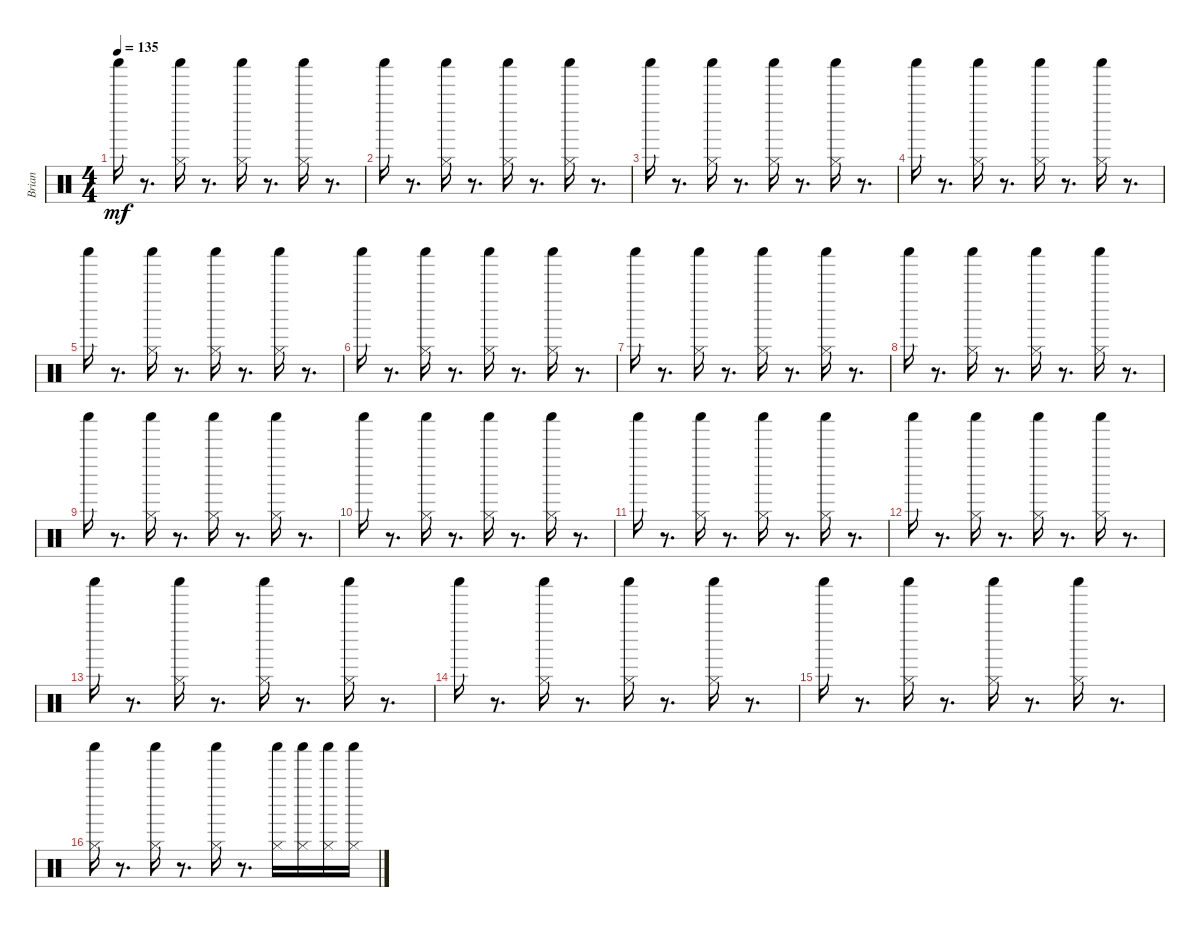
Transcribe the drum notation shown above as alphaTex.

\track ("Brian" "Brian") {instrument percussion}
\staff {score}
\articulation defaults
\ts (4 4)
\tempo 135
\clef neutral
\ks c "Shaker (hit)".16{dy mf}
r.8{d} ("Shaker (hit)" "Hi-Hat (closed)").16 r.8{d} ("Shaker (hit)" "Hi-Hat (closed)").16 r.8{d} ("Shaker (hit)" "Hi-Hat (closed)").16 r.8{d} |
"Shaker (hit)".16 r.8{d} ("Shaker (hit)" "Hi-Hat (closed)").16 r.8{d} ("Shaker (hit)" "Hi-Hat (closed)").16 r.8{d} ("Shaker (hit)" "Hi-Hat (closed)").16 r.8{d} |
"Shaker (hit)".16 r.8{d} ("Shaker (hit)" "Hi-Hat (closed)").16 r.8{d} ("Shaker (hit)" "Hi-Hat (closed)").16 r.8{d} ("Shaker (hit)" "Hi-Hat (closed)").16 r.8{d} |
"Shaker (hit)".16 r.8{d} ("Shaker (hit)" "Hi-Hat (closed)").16 r.8{d} ("Shaker (hit)" "Hi-Hat (closed)").16 r.8{d} ("Shaker (hit)" "Hi-Hat (closed)").16 r.8{d} |
"Shaker (hit)".16 r.8{d} ("Shaker (hit)" "Hi-Hat (closed)").16 r.8{d} ("Shaker (hit)" "Hi-Hat (closed)").16 r.8{d} ("Shaker (hit)" "Hi-Hat (closed)").16 r.8{d} |
"Shaker (hit)".16 r.8{d} ("Shaker (hit)" "Hi-Hat (closed)").16 r.8{d} ("Shaker (hit)" "Hi-Hat (closed)").16 r.8{d} ("Shaker (hit)" "Hi-Hat (closed)").16 r.8{d} |
"Shaker (hit)".16 r.8{d} ("Shaker (hit)" "Hi-Hat (closed)").16 r.8{d} ("Shaker (hit)" "Hi-Hat (closed)").16 r.8{d} ("Shaker (hit)" "Hi-Hat (closed)").16 r.8{d} |
"Shaker (hit)".16 r.8{d} ("Shaker (hit)" "Hi-Hat (closed)").16 r.8{d} ("Shaker (hit)" "Hi-Hat (closed)").16 r.8{d} ("Shaker (hit)" "Hi-Hat (closed)").16 r.8{d} |
"Shaker (hit)".16 r.8{d} ("Shaker (hit)" "Hi-Hat (closed)").16 r.8{d} ("Shaker (hit)" "Hi-Hat (closed)").16 r.8{d} ("Shaker (hit)" "Hi-Hat (closed)").16 r.8{d} |
"Shaker (hit)".16 r.8{d} ("Shaker (hit)" "Hi-Hat (closed)").16 r.8{d} ("Shaker (hit)" "Hi-Hat (closed)").16 r.8{d} ("Shaker (hit)" "Hi-Hat (closed)").16 r.8{d} |
"Shaker (hit)".16 r.8{d} ("Shaker (hit)" "Hi-Hat (closed)").16 r.8{d} ("Shaker (hit)" "Hi-Hat (closed)").16 r.8{d} ("Shaker (hit)" "Hi-Hat (closed)").16 r.8{d} |
"Shaker (hit)".16 r.8{d} ("Shaker (hit)" "Hi-Hat (closed)").16 r.8{d} ("Shaker (hit)" "Hi-Hat (closed)").16 r.8{d} ("Shaker (hit)" "Hi-Hat (closed)").16 r.8{d} |
"Shaker (hit)".16 r.8{d} ("Shaker (hit)" "Hi-Hat (closed)").16 r.8{d} ("Shaker (hit)" "Hi-Hat (closed)").16 r.8{d} ("Shaker (hit)" "Hi-Hat (closed)").16 r.8{d} |
"Shaker (hit)".16 r.8{d} ("Shaker (hit)" "Hi-Hat (closed)").16 r.8{d} ("Shaker (hit)" "Hi-Hat (closed)").16 r.8{d} ("Shaker (hit)" "Hi-Hat (closed)").16 r.8{d} |
"Shaker (hit)".16 r.8{d} ("Shaker (hit)" "Hi-Hat (closed)").16 r.8{d} ("Shaker (hit)" "Hi-Hat (closed)").16 r.8{d} ("Shaker (hit)" "Hi-Hat (closed)").16 r.8{d} |
("Shaker (hit)" "Hi-Hat (closed)").16 r.8{d} ("Shaker (hit)" "Hi-Hat (closed)").16 r.8{d} ("Shaker (hit)" "Hi-Hat (closed)").16 r.8{d} ("Shaker (hit)" "Hi-Hat (closed)").16 ("Shaker (hit)" "Hi-Hat (closed)").16 ("Shaker (hit)" "Hi-Hat (closed)").16 ("Shaker (hit)" "Hi-Hat (closed)").16
